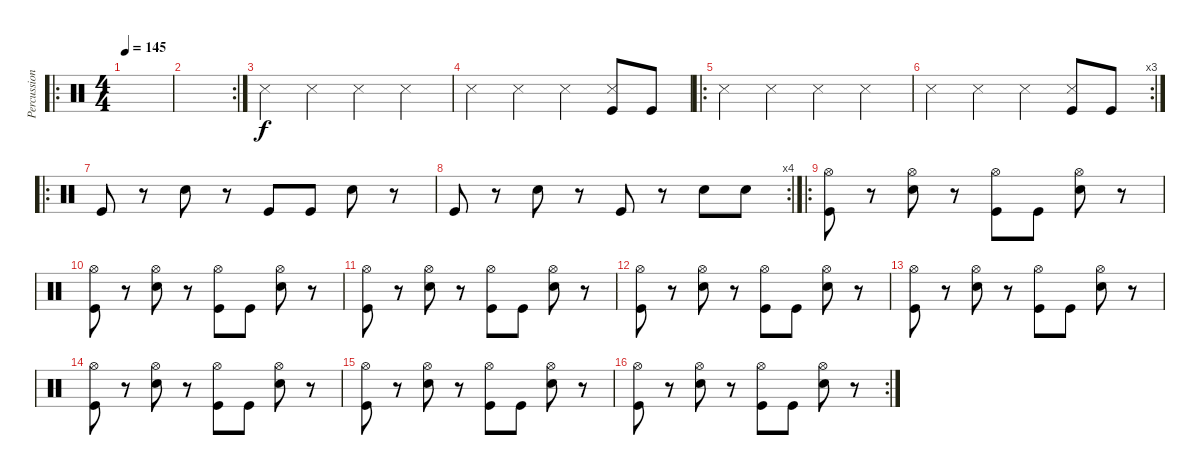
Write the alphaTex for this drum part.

\track ("Percussion" "Percussion") {instrument percussion}
\staff {score}
\articulation defaults
\ro
\ts (4 4)
\tempo 145
\clef neutral
\ks c
|
\rc 2
|
"Snare (side stick) 3".4 "Snare (side stick) 3".4 "Snare (side stick) 3".4 "Snare (side stick) 3".4 |
"Snare (side stick) 3".4 "Snare (side stick) 3".4 "Snare (side stick) 3".4 ("Snare (side stick) 3" "Kick (hit)").8 "Kick (hit)".8 |
\ro "Snare (side stick) 3".4 "Snare (side stick) 3".4 "Snare (side stick) 3".4 "Snare (side stick) 3".4
|
\rc 3 "Snare (side stick) 3".4 "Snare (side stick) 3".4 "Snare (side stick) 3".4
("Snare (side stick) 3" "Kick (hit)").8 "Kick (hit)".8 |
\ro "Kick (hit)".8
r.8 "Snare (hit) 2".8 r.8 "Kick (hit)".8 "Kick (hit)".8 "Snare (hit) 2".8 r.8 |
\rc 4 "Kick (hit)".8
r.8 "Snare (hit) 2".8 r.8 "Kick (hit)".8 r.8 "Snare (hit) 2".8 "Snare (hit) 2".8 |
\ro
("Kick (hit)" "Hi-Hat (open)").8 r.8 ("Snare (hit) 2" "Hi-Hat (open)").8 r.8 ("Kick (hit)" "Hi-Hat (open)").8 "Kick (hit)".8 ("Snare (hit) 2" "Hi-Hat (open)").8 r.8 |
("Kick (hit)" "Hi-Hat (open)").8 r.8 ("Snare (hit) 2" "Hi-Hat (open)").8 r.8 ("Kick (hit)" "Hi-Hat (open)").8 "Kick (hit)".8 ("Snare (hit) 2" "Hi-Hat (open)").8 r.8 |
("Kick (hit)" "Hi-Hat (open)").8 r.8 ("Snare (hit) 2" "Hi-Hat (open)").8 r.8 ("Kick (hit)" "Hi-Hat (open)").8 "Kick (hit)".8 ("Snare (hit) 2" "Hi-Hat (open)").8 r.8 |
("Kick (hit)" "Hi-Hat (open)").8 r.8 ("Snare (hit) 2" "Hi-Hat (open)").8 r.8 ("Kick (hit)" "Hi-Hat (open)").8 "Kick (hit)".8 ("Snare (hit) 2" "Hi-Hat (open)").8 r.8 |
("Kick (hit)" "Hi-Hat (open)").8 r.8 ("Snare (hit) 2" "Hi-Hat (open)").8 r.8 ("Kick (hit)" "Hi-Hat (open)").8 "Kick (hit)".8 ("Snare (hit) 2" "Hi-Hat (open)").8 r.8 |
("Kick (hit)" "Hi-Hat (open)").8 r.8 ("Snare (hit) 2" "Hi-Hat (open)").8 r.8 ("Kick (hit)" "Hi-Hat (open)").8 "Kick (hit)".8 ("Snare (hit) 2" "Hi-Hat (open)").8 r.8 |
("Kick (hit)" "Hi-Hat (open)").8 r.8 ("Snare (hit) 2" "Hi-Hat (open)").8 r.8 ("Kick (hit)" "Hi-Hat (open)").8 "Kick (hit)".8 ("Snare (hit) 2" "Hi-Hat (open)").8 r.8 |
\rc 2
("Kick (hit)" "Hi-Hat (open)").8 r.8 ("Snare (hit) 2" "Hi-Hat (open)").8 r.8 ("Kick (hit)" "Hi-Hat (open)").8 "Kick (hit)".8 ("Snare (hit) 2" "Hi-Hat (open)").8 r.8
